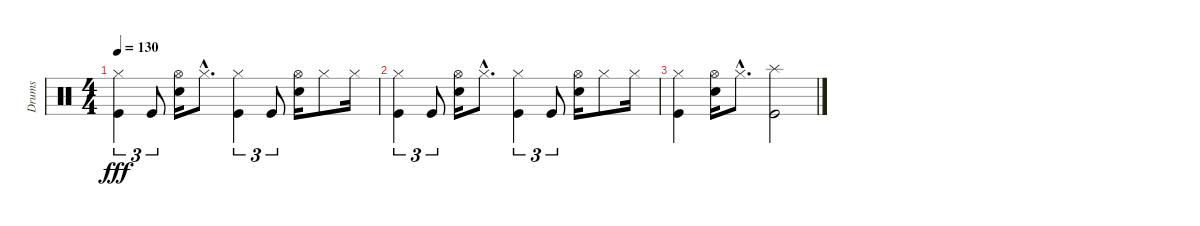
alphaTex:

\track ("Drums" "Drums") {instrument percussion}
\staff {score}
\articulation defaults
\ts (4 4)
\tempo 130
\clef neutral
\ks c
("Hi-Hat (closed)" "Kick (hit)").4{tu (3 2) dy fff} "Kick (hit)".8{tu (3 2)} ("Hi-Hat (open)" "Snare (hit) 2").16 "Hi-Hat (closed)"{hac}.8{d} ("Hi-Hat (closed)" "Kick (hit)").4{tu (3 2)} "Kick (hit)".8{tu (3 2)} ("Hi-Hat (open)" "Snare (hit) 2").16 "Hi-Hat (closed)".8 "Hi-Hat (closed)".16 |
("Hi-Hat (closed)" "Kick (hit)").4{tu (3 2)} "Kick (hit)".8{tu (3 2)} ("Hi-Hat (open)" "Snare (hit) 2").16 "Hi-Hat (closed)"{hac}.8{d} ("Hi-Hat (closed)" "Kick (hit)").4{tu (3 2)} "Kick (hit)".8{tu (3 2)} ("Hi-Hat (open)" "Snare (hit) 2").16 "Hi-Hat (closed)".8 "Hi-Hat (closed)".16 |
("Hi-Hat (closed)" "Kick (hit)").4 ("Hi-Hat (open)" "Snare (hit) 2").16 "Hi-Hat (closed)"{hac}.8{d} ("Splash (hit)" "Kick (hit)").2
